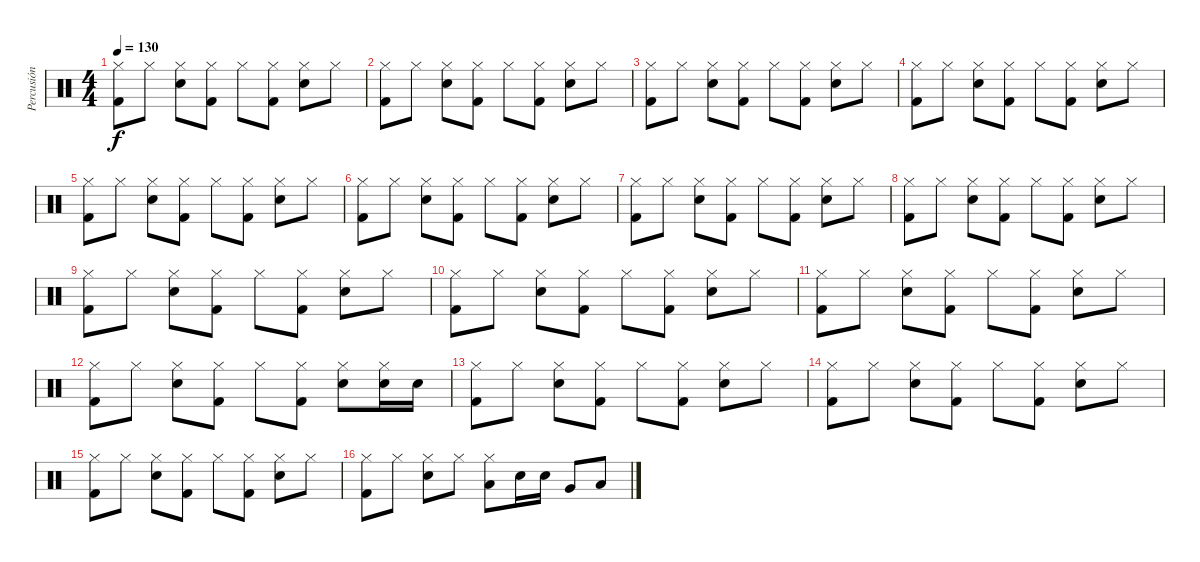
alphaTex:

\track ("Percusión" "Percusión") {instrument percussion}
\staff {score}
\articulation defaults
\ts (4 4)
\tempo 130
\clef neutral
\ks c
("Hi-Hat (closed)" "Kick (hit) 2").8{dy f} "Hi-Hat (closed)".8 ("Hi-Hat (closed)" "Electric Snare (hit)").8 ("Hi-Hat (closed)" "Kick (hit) 2").8 "Hi-Hat (closed)".8 ("Hi-Hat (closed)" "Kick (hit) 2").8 ("Hi-Hat (closed)" "Electric Snare (hit)").8 "Hi-Hat (closed)".8 |
("Hi-Hat (closed)" "Kick (hit) 2").8 "Hi-Hat (closed)".8 ("Hi-Hat (closed)" "Electric Snare (hit)").8 ("Hi-Hat (closed)" "Kick (hit) 2").8 "Hi-Hat (closed)".8 ("Hi-Hat (closed)" "Kick (hit) 2").8 ("Hi-Hat (closed)" "Electric Snare (hit)").8 "Hi-Hat (closed)".8 |
("Hi-Hat (closed)" "Kick (hit) 2").8 "Hi-Hat (closed)".8 ("Hi-Hat (closed)" "Electric Snare (hit)").8 ("Hi-Hat (closed)" "Kick (hit) 2").8 "Hi-Hat (closed)".8 ("Hi-Hat (closed)" "Kick (hit) 2").8 ("Hi-Hat (closed)" "Electric Snare (hit)").8 "Hi-Hat (closed)".8 |
("Hi-Hat (closed)" "Kick (hit) 2").8 "Hi-Hat (closed)".8 ("Hi-Hat (closed)" "Electric Snare (hit)").8 ("Hi-Hat (closed)" "Kick (hit) 2").8 "Hi-Hat (closed)".8 ("Hi-Hat (closed)" "Kick (hit) 2").8 ("Hi-Hat (closed)" "Electric Snare (hit)").8 "Hi-Hat (closed)".8 |
("Hi-Hat (closed)" "Kick (hit) 2").8 "Hi-Hat (closed)".8 ("Hi-Hat (closed)" "Electric Snare (hit)").8 ("Hi-Hat (closed)" "Kick (hit) 2").8 "Hi-Hat (closed)".8 ("Hi-Hat (closed)" "Kick (hit) 2").8 ("Hi-Hat (closed)" "Electric Snare (hit)").8 "Hi-Hat (closed)".8 |
("Hi-Hat (closed)" "Kick (hit) 2").8 "Hi-Hat (closed)".8 ("Hi-Hat (closed)" "Electric Snare (hit)").8 ("Hi-Hat (closed)" "Kick (hit) 2").8 "Hi-Hat (closed)".8 ("Hi-Hat (closed)" "Kick (hit) 2").8 ("Hi-Hat (closed)" "Electric Snare (hit)").8 "Hi-Hat (closed)".8 |
("Hi-Hat (closed)" "Kick (hit) 2").8 "Hi-Hat (closed)".8 ("Hi-Hat (closed)" "Electric Snare (hit)").8 ("Hi-Hat (closed)" "Kick (hit) 2").8 "Hi-Hat (closed)".8 ("Hi-Hat (closed)" "Kick (hit) 2").8 ("Hi-Hat (closed)" "Electric Snare (hit)").8 "Hi-Hat (closed)".8 |
("Hi-Hat (closed)" "Kick (hit) 2").8 "Hi-Hat (closed)".8 ("Hi-Hat (closed)" "Electric Snare (hit)").8 ("Hi-Hat (closed)" "Kick (hit) 2").8 "Hi-Hat (closed)".8 ("Hi-Hat (closed)" "Kick (hit) 2").8 ("Hi-Hat (closed)" "Electric Snare (hit)").8 "Hi-Hat (closed)".8 |
("Hi-Hat (closed)" "Kick (hit) 2").8 "Hi-Hat (closed)".8 ("Hi-Hat (closed)" "Electric Snare (hit)").8 ("Hi-Hat (closed)" "Kick (hit) 2").8 "Hi-Hat (closed)".8 ("Hi-Hat (closed)" "Kick (hit) 2").8 ("Hi-Hat (closed)" "Electric Snare (hit)").8 "Hi-Hat (closed)".8 |
("Hi-Hat (closed)" "Kick (hit) 2").8 "Hi-Hat (closed)".8 ("Hi-Hat (closed)" "Electric Snare (hit)").8 ("Hi-Hat (closed)" "Kick (hit) 2").8 "Hi-Hat (closed)".8 ("Hi-Hat (closed)" "Kick (hit) 2").8 ("Hi-Hat (closed)" "Electric Snare (hit)").8 "Hi-Hat (closed)".8 |
("Hi-Hat (closed)" "Kick (hit) 2").8 "Hi-Hat (closed)".8 ("Hi-Hat (closed)" "Electric Snare (hit)").8 ("Hi-Hat (closed)" "Kick (hit) 2").8 "Hi-Hat (closed)".8 ("Hi-Hat (closed)" "Kick (hit) 2").8 ("Hi-Hat (closed)" "Electric Snare (hit)").8 "Hi-Hat (closed)".8 |
("Hi-Hat (closed)" "Kick (hit) 2").8 "Hi-Hat (closed)".8 ("Hi-Hat (closed)" "Electric Snare (hit)").8 ("Hi-Hat (closed)" "Kick (hit) 2").8 "Hi-Hat (closed)".8 ("Hi-Hat (closed)" "Kick (hit) 2").8 ("Hi-Hat (closed)" "Electric Snare (hit)").8 ("Hi-Hat (closed)" "Electric Snare (hit)").16 "Electric Snare (hit)".16 |
("Hi-Hat (closed)" "Kick (hit) 2").8 "Hi-Hat (closed)".8 ("Hi-Hat (closed)" "Electric Snare (hit)").8 ("Hi-Hat (closed)" "Kick (hit) 2").8 "Hi-Hat (closed)".8 ("Hi-Hat (closed)" "Kick (hit) 2").8 ("Hi-Hat (closed)" "Electric Snare (hit)").8 "Hi-Hat (closed)".8 |
("Hi-Hat (closed)" "Kick (hit) 2").8 "Hi-Hat (closed)".8 ("Hi-Hat (closed)" "Electric Snare (hit)").8 ("Hi-Hat (closed)" "Kick (hit) 2").8 "Hi-Hat (closed)".8 ("Hi-Hat (closed)" "Kick (hit) 2").8 ("Hi-Hat (closed)" "Electric Snare (hit)").8 "Hi-Hat (closed)".8 |
("Hi-Hat (closed)" "Kick (hit) 2").8 "Hi-Hat (closed)".8 ("Hi-Hat (closed)" "Electric Snare (hit)").8 ("Hi-Hat (closed)" "Kick (hit) 2").8 "Hi-Hat (closed)".8 ("Hi-Hat (closed)" "Kick (hit) 2").8 ("Hi-Hat (closed)" "Electric Snare (hit)").8 "Hi-Hat (closed)".8 |
("Hi-Hat (closed)" "Kick (hit) 2").8 "Hi-Hat (closed)".8 ("Hi-Hat (closed)" "Electric Snare (hit)").8 "Hi-Hat (closed)".8 ("Hi-Hat (closed)" "Low Tom (hit)").8 "Electric Snare (hit)".16 "Electric Snare (hit)".16 "Very Low Tom (hit)".8 "Low Floor Tom (hit)".8
